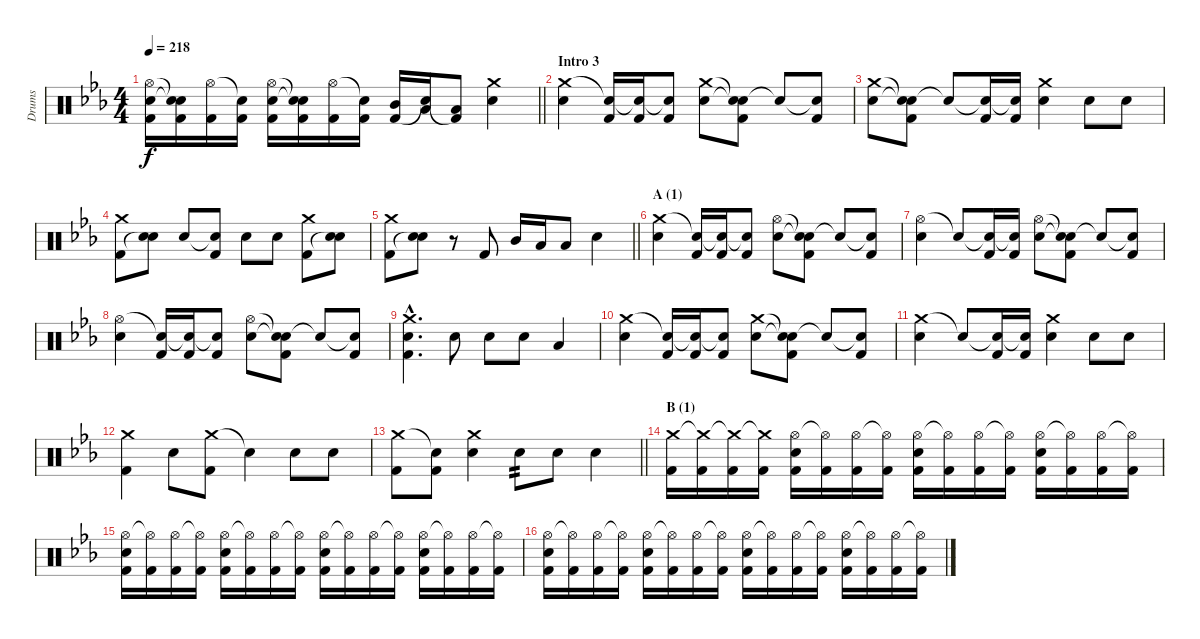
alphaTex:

\track ("Drums" "Drums") {instrument percussion}
\staff {score}
\articulation defaults
\ts (4 4)
\tempo 218
\clef neutral
\barLineRight lightlight
\ks eb
("Hi-Hat (open)" "Electric Snare (hit)" "Kick (hit) 2").16{dy f} ("Snare (hit)"{t} "Snare (hit)"{t} "Kick (hit) 2").16 ("Hi-Hat (open)" "Kick (hit) 2").16 ("Snare (hit)"{t} "Kick (hit) 2").16 ("Hi-Hat (open)" "Electric Snare (hit)" "Kick (hit) 2").16 ("Snare (hit)"{t} "Snare (hit)"{t} "Kick (hit) 2").16 ("Hi-Hat (open)" "Kick (hit) 2").16 ("Snare (hit)"{t} "Kick (hit) 2").16 ("Mid Tom (hit)" "Kick (hit) 2").16 ("Low Tom (hit)" "Snare (hit)"{t}).16 ("Low Floor Tom (hit)" "Kick (hit) 2"{t}).8 ("Crash medium (hit)" "Electric Snare (hit)").4 |
\section ("" "Intro 3")
("Crash medium (hit)" "Electric Snare (hit)").4 ("Snare (hit)"{t} "Kick (hit) 2").16 ("Snare (hit)"{t} "Kick (hit) 2").16 ("Snare (hit)"{t} "Kick (hit) 2").8 ("Crash medium (hit)" "Electric Snare (hit)").8 ("Snare (hit)"{t} "Snare (hit)"{t} "Kick (hit) 2").8 "Snare (hit)"{t}.8 ("Snare (hit)"{t} "Kick (hit) 2").8 |
("Crash medium (hit)" "Electric Snare (hit)").8 ("Snare (hit)"{t} "Snare (hit)"{t} "Kick (hit) 2").8 "Snare (hit)"{t}.8 ("Snare (hit)"{t} "Kick (hit) 2").16 ("Snare (hit)"{t} "Kick (hit) 2").16 ("Crash medium (hit)" "Electric Snare (hit)").4 "Electric Snare (hit)".8 "Electric Snare (hit)".8 |
("Crash medium (hit)" "Kick (hit) 2").8 ("Electric Snare (hit)" "Snare (hit)"{t}).8 "Electric Snare (hit)".8 ("Snare (hit)"{t} "Kick (hit) 2").8 "Electric Snare (hit)".8 "Electric Snare (hit)".8 ("Crash medium (hit)" "Kick (hit) 2").8 ("Electric Snare (hit)" "Snare (hit)"{t}).8 |
\barLineRight lightlight
("Crash medium (hit)" "Kick (hit) 2").8 ("Electric Snare (hit)" "Snare (hit)"{t}).8 r.8 "Kick (hit) 2".8 "Mid Tom (hit)".16 "Low Tom (hit)".16 "Low Floor Tom (hit)".8 "Electric Snare (hit)".4 |
\section ("" "A (1)")
("Crash medium (hit)" "Electric Snare (hit)").4 ("Snare (hit)"{t} "Kick (hit) 2").16 ("Snare (hit)"{t} "Kick (hit) 2").16 ("Snare (hit)"{t} "Kick (hit) 2").8 ("Hi-Hat (open)" "Electric Snare (hit)").8 ("Snare (hit)"{t} "Snare (hit)"{t} "Kick (hit) 2").8 "Snare (hit)"{t}.8 ("Snare (hit)"{t} "Kick (hit) 2").8 |
("Hi-Hat (open)" "Electric Snare (hit)").4 "Snare (hit)"{t}.8 ("Snare (hit)"{t} "Kick (hit) 2").16 ("Snare (hit)"{t} "Kick (hit) 2").16 ("Hi-Hat (open)" "Electric Snare (hit)").8 ("Snare (hit)"{t} "Snare (hit)"{t} "Kick (hit) 2").8 "Snare (hit)"{t}.8 ("Snare (hit)"{t} "Kick (hit) 2").8 |
("Hi-Hat (open)" "Electric Snare (hit)").4 ("Snare (hit)"{t} "Kick (hit) 2").16 ("Snare (hit)"{t} "Kick (hit) 2").16 ("Snare (hit)"{t} "Kick (hit) 2").8 ("Hi-Hat (open)" "Electric Snare (hit)").8 ("Snare (hit)"{t} "Snare (hit)"{t} "Kick (hit) 2").8 "Snare (hit)"{t}.8 ("Snare (hit)"{t} "Kick (hit) 2").8 |
("Crash medium (hit)"{hac} "Electric Snare (hit)"{hac} "Kick (hit) 2"{hac}).4{d} "Electric Snare (hit)".8 "Electric Snare (hit)".8 "Electric Snare (hit)".8 "Low Floor Tom (hit)".4 |
("Crash medium (hit)" "Electric Snare (hit)").4 ("Snare (hit)"{t} "Kick (hit) 2").16 ("Snare (hit)"{t} "Kick (hit) 2").16 ("Snare (hit)"{t} "Kick (hit) 2").8 ("Crash medium (hit)" "Electric Snare (hit)").8 ("Snare (hit)"{t} "Snare (hit)"{t} "Kick (hit) 2").8 "Snare (hit)"{t}.8 ("Snare (hit)"{t} "Kick (hit) 2").8 |
("Crash medium (hit)" "Electric Snare (hit)").4 "Snare (hit)"{t}.8 ("Snare (hit)"{t} "Kick (hit) 2").16 ("Snare (hit)"{t} "Kick (hit) 2").16 ("Crash medium (hit)" "Electric Snare (hit)").4 "Electric Snare (hit)".8 "Electric Snare (hit)".8 |
("Crash medium (hit)" "Kick (hit) 2").4 "Electric Snare (hit)".8 ("Crash medium (hit)" "Kick (hit) 2").8 "Snare (hit)"{t}.4 "Electric Snare (hit)".8 "Electric Snare (hit)".8 |
\barLineRight lightlight
("Crash medium (hit)" "Kick (hit) 2").8 ("Snare (hit)"{t} "Kick (hit) 2").8 ("Crash medium (hit)" "Electric Snare (hit)").4 "Electric Snare (hit)".8{tp 2} "Electric Snare (hit)".8 "Electric Snare (hit)".4 |
\section ("" "B (1)")
("Crash medium (hit)" "Kick (hit) 2").16 ("Crash medium (hit)"{t} "Kick (hit) 2").16 ("Crash medium (hit)"{t} "Kick (hit) 2").16 ("Crash medium (hit)"{t} "Kick (hit) 2").16 ("Hi-Hat (open)" "Electric Snare (hit)" "Kick (hit) 2").16 ("Hi-Hat (open)"{t} "Kick (hit) 2").16 ("Hi-Hat (open)" "Kick (hit) 2").16 ("Hi-Hat (open)"{t} "Kick (hit) 2").16 ("Hi-Hat (open)" "Electric Snare (hit)" "Kick (hit) 2").16 ("Hi-Hat (open)"{t} "Kick (hit) 2").16 ("Hi-Hat (open)" "Kick (hit) 2").16 ("Hi-Hat (open)"{t} "Kick (hit) 2").16 ("Hi-Hat (open)" "Electric Snare (hit)" "Kick (hit) 2").16 ("Hi-Hat (open)"{t} "Kick (hit) 2").16 ("Hi-Hat (open)" "Kick (hit) 2").16 ("Hi-Hat (open)"{t} "Kick (hit) 2").16 |
("Hi-Hat (open)" "Electric Snare (hit)" "Kick (hit) 2").16 ("Hi-Hat (open)"{t} "Kick (hit) 2").16 ("Hi-Hat (open)" "Kick (hit) 2").16 ("Hi-Hat (open)"{t} "Kick (hit) 2").16 ("Hi-Hat (open)" "Electric Snare (hit)" "Kick (hit) 2").16 ("Hi-Hat (open)"{t} "Kick (hit) 2").16 ("Hi-Hat (open)" "Kick (hit) 2").16 ("Hi-Hat (open)"{t} "Kick (hit) 2").16 ("Hi-Hat (open)" "Electric Snare (hit)" "Kick (hit) 2").16 ("Hi-Hat (open)"{t} "Kick (hit) 2").16 ("Hi-Hat (open)" "Kick (hit) 2").16 ("Hi-Hat (open)"{t} "Kick (hit) 2").16 ("Hi-Hat (open)" "Electric Snare (hit)" "Kick (hit) 2").16 ("Hi-Hat (open)"{t} "Kick (hit) 2").16 ("Hi-Hat (open)" "Kick (hit) 2").16 ("Hi-Hat (open)"{t} "Kick (hit) 2").16 |
("Hi-Hat (open)" "Electric Snare (hit)" "Kick (hit) 2").16 ("Hi-Hat (open)"{t} "Kick (hit) 2").16 ("Hi-Hat (open)" "Kick (hit) 2").16 ("Hi-Hat (open)"{t} "Kick (hit) 2").16 ("Hi-Hat (open)" "Electric Snare (hit)" "Kick (hit) 2").16 ("Hi-Hat (open)"{t} "Kick (hit) 2").16 ("Hi-Hat (open)" "Kick (hit) 2").16 ("Hi-Hat (open)"{t} "Kick (hit) 2").16 ("Hi-Hat (open)" "Electric Snare (hit)" "Kick (hit) 2").16 ("Hi-Hat (open)"{t} "Kick (hit) 2").16 ("Hi-Hat (open)" "Kick (hit) 2").16 ("Hi-Hat (open)"{t} "Kick (hit) 2").16 ("Hi-Hat (open)" "Electric Snare (hit)" "Kick (hit) 2").16 ("Hi-Hat (open)"{t} "Kick (hit) 2").16 ("Hi-Hat (open)" "Kick (hit) 2").16 ("Hi-Hat (open)"{t} "Kick (hit) 2").16
